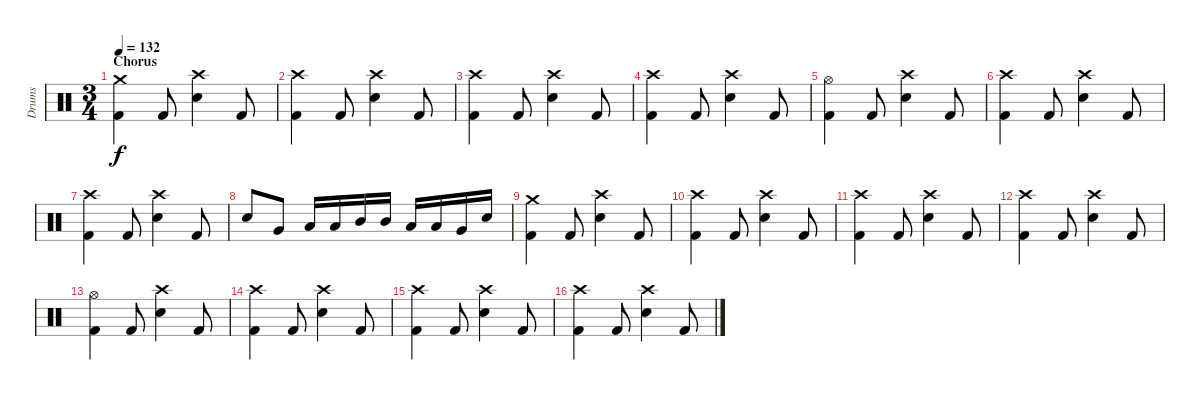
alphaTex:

\track ("Drums" "Drums") {instrument percussion}
\staff {score}
\articulation defaults
\ts (3 4)
\section ("" "Chorus")
\tempo 132
\clef neutral
\ks c
("Crash medium (hit)" "Kick (hit) 2").4{dy f} "Kick (hit) 2".8 ("Crash high (hit)" "Snare (hit) 2").4 "Kick (hit) 2".8 |
("Crash high (hit)" "Kick (hit) 2").4 "Kick (hit) 2".8 ("Crash high (hit)" "Snare (hit) 2").4 "Kick (hit) 2".8 |
("Crash high (hit)" "Kick (hit) 2").4 "Kick (hit) 2".8 ("Crash high (hit)" "Snare (hit) 2").4 "Kick (hit) 2".8 |
("Crash high (hit)" "Kick (hit) 2").4 "Kick (hit) 2".8 ("Crash high (hit)" "Snare (hit) 2").4 "Kick (hit) 2".8 |
("Hi-Hat (open)" "Kick (hit) 2").4 "Kick (hit) 2".8 ("Crash high (hit)" "Snare (hit) 2").4 "Kick (hit) 2".8 |
("Crash high (hit)" "Kick (hit) 2").4 "Kick (hit) 2".8 ("Crash high (hit)" "Snare (hit) 2").4 "Kick (hit) 2".8 |
("Crash high (hit)" "Kick (hit) 2").4 "Kick (hit) 2".8 ("Crash high (hit)" "Snare (hit) 2").4 "Kick (hit) 2".8 |
"Snare (hit) 2".8 "Very Low Tom (hit)".8 "Low Tom (hit)".16 "Low Tom (hit)".16 "Mid Tom (hit)".16 "Mid Tom (hit)".16 "Low Tom (hit)".16 "Low Tom (hit)".16 "Very Low Tom (hit)".16 "Snare (hit) 2".16 |
("Crash medium (hit)" "Kick (hit) 2").4 "Kick (hit) 2".8 ("Crash high (hit)" "Snare (hit) 2").4 "Kick (hit) 2".8 |
("Crash high (hit)" "Kick (hit) 2").4 "Kick (hit) 2".8 ("Crash high (hit)" "Snare (hit) 2").4 "Kick (hit) 2".8 |
("Crash high (hit)" "Kick (hit) 2").4 "Kick (hit) 2".8 ("Crash high (hit)" "Snare (hit) 2").4 "Kick (hit) 2".8 |
("Crash high (hit)" "Kick (hit) 2").4 "Kick (hit) 2".8 ("Crash high (hit)" "Snare (hit) 2").4 "Kick (hit) 2".8 |
("Hi-Hat (open)" "Kick (hit) 2").4 "Kick (hit) 2".8 ("Crash high (hit)" "Snare (hit) 2").4 "Kick (hit) 2".8 |
("Crash high (hit)" "Kick (hit) 2").4 "Kick (hit) 2".8 ("Crash high (hit)" "Snare (hit) 2").4 "Kick (hit) 2".8 |
("Crash high (hit)" "Kick (hit) 2").4 "Kick (hit) 2".8 ("Crash high (hit)" "Snare (hit) 2").4 "Kick (hit) 2".8 |
("Crash high (hit)" "Kick (hit) 2").4 "Kick (hit) 2".8 ("Crash high (hit)" "Snare (hit) 2").4 "Kick (hit) 2".8
